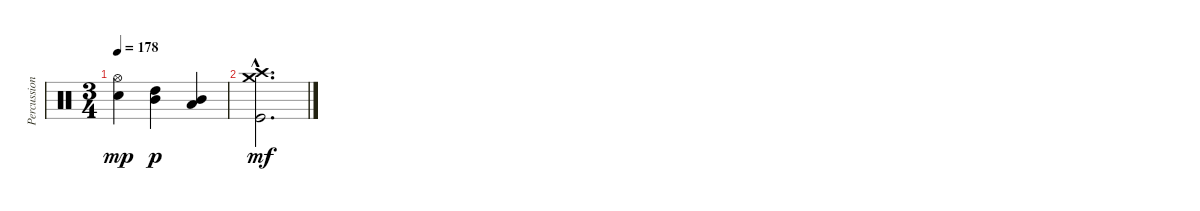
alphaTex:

\track ("Percussions" "Percussion") {instrument percussion}
\staff {score}
\articulation defaults
\ts (3 4)
\tempo 178
\clef neutral
\ks c
("Electric Snare (hit)" "Hi-Hat (open)").4{dy mp} ("Mid Tom (hit)" "High Tom (hit)").4{dy p} ("Low Tom (hit)" "Mid Tom (hit)").4 |
("Kick (hit)"{hac} "Crash high (hit)"{hac} "Crash medium (hit)"{hac}).2{d dy mf}
